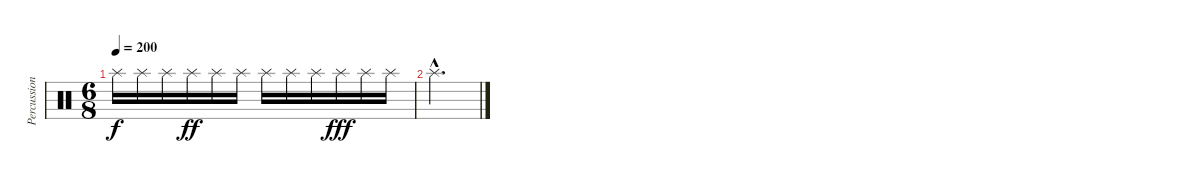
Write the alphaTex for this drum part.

\track ("Percussion" "Percussion") {instrument percussion}
\staff {score}
\articulation defaults
\ts (6 8)
\tempo 200
\clef neutral
\ks c "Splash (hit)".16{dy f} "Splash (hit)".16 "Splash (hit)".16 "Splash (hit)".16{dy ff} "Splash (hit)".16 "Splash (hit)".16 "Splash (hit)".16 "Splash (hit)".16 "Splash (hit)".16 "Splash (hit)".16{dy fff} "Splash (hit)".16 "Splash (hit)".16
|
"Splash (hit)"{hac}.2{d}
